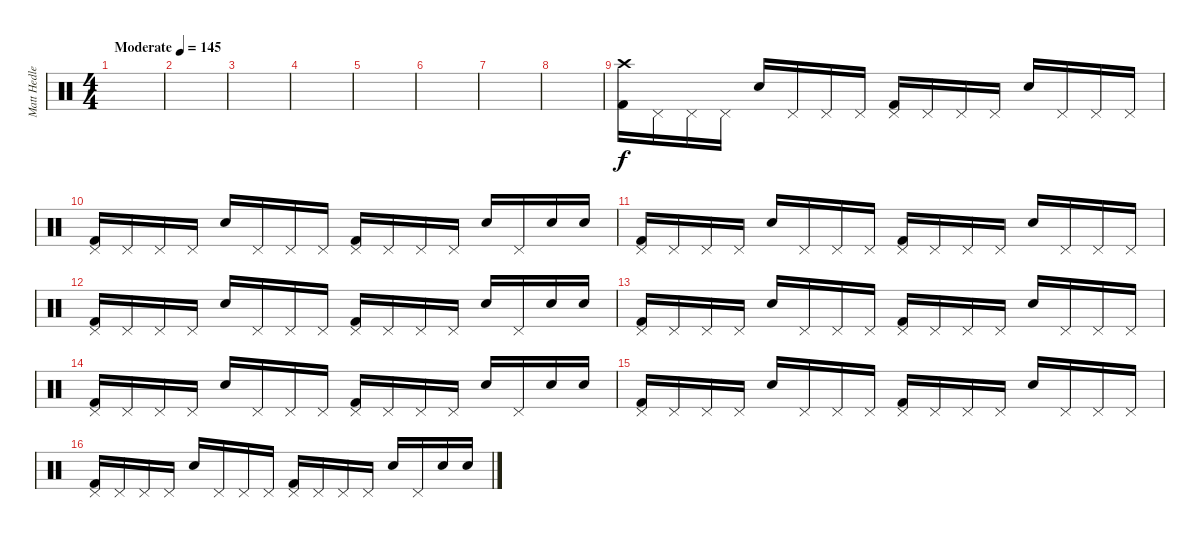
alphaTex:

\track ("Matt Hedlers" "Matt Hedle") {instrument percussion}
\staff {score}
\articulation defaults
\ts (4 4)
\tempo (145 "Moderate")
\clef neutral
\ks c
|
|
|
|
|
|
|
|
("Crash high (hit)" "Kick (hit) 2").16 "Pedal Hi-Hat (hit)".16 "Pedal Hi-Hat (hit)".16 "Pedal Hi-Hat (hit)".16 "Snare (hit) 2".16 "Pedal Hi-Hat (hit)".16 "Pedal Hi-Hat (hit)".16 "Pedal Hi-Hat (hit)".16 ("Pedal Hi-Hat (hit)" "Kick (hit) 2").16 "Pedal Hi-Hat (hit)".16 "Pedal Hi-Hat (hit)".16 "Pedal Hi-Hat (hit)".16 "Snare (hit) 2".16 "Pedal Hi-Hat (hit)".16 "Pedal Hi-Hat (hit)".16 "Pedal Hi-Hat (hit)".16 |
("Pedal Hi-Hat (hit)" "Kick (hit) 2").16 "Pedal Hi-Hat (hit)".16 "Pedal Hi-Hat (hit)".16 "Pedal Hi-Hat (hit)".16 "Snare (hit) 2".16 "Pedal Hi-Hat (hit)".16 "Pedal Hi-Hat (hit)".16 "Pedal Hi-Hat (hit)".16 ("Pedal Hi-Hat (hit)" "Kick (hit) 2").16 "Pedal Hi-Hat (hit)".16 "Pedal Hi-Hat (hit)".16 "Pedal Hi-Hat (hit)".16 "Snare (hit) 2".16 "Pedal Hi-Hat (hit)".16 "Snare (hit) 2".16 "Snare (hit) 2".16 |
("Pedal Hi-Hat (hit)" "Kick (hit) 2").16 "Pedal Hi-Hat (hit)".16 "Pedal Hi-Hat (hit)".16 "Pedal Hi-Hat (hit)".16 "Snare (hit) 2".16 "Pedal Hi-Hat (hit)".16 "Pedal Hi-Hat (hit)".16 "Pedal Hi-Hat (hit)".16 ("Pedal Hi-Hat (hit)" "Kick (hit) 2").16 "Pedal Hi-Hat (hit)".16 "Pedal Hi-Hat (hit)".16 "Pedal Hi-Hat (hit)".16 "Snare (hit) 2".16 "Pedal Hi-Hat (hit)".16 "Pedal Hi-Hat (hit)".16 "Pedal Hi-Hat (hit)".16 |
("Pedal Hi-Hat (hit)" "Kick (hit) 2").16 "Pedal Hi-Hat (hit)".16 "Pedal Hi-Hat (hit)".16 "Pedal Hi-Hat (hit)".16 "Snare (hit) 2".16 "Pedal Hi-Hat (hit)".16 "Pedal Hi-Hat (hit)".16 "Pedal Hi-Hat (hit)".16 ("Pedal Hi-Hat (hit)" "Kick (hit) 2").16 "Pedal Hi-Hat (hit)".16 "Pedal Hi-Hat (hit)".16 "Pedal Hi-Hat (hit)".16 "Snare (hit) 2".16 "Pedal Hi-Hat (hit)".16 "Snare (hit) 2".16 "Snare (hit) 2".16 |
("Pedal Hi-Hat (hit)" "Kick (hit) 2").16 "Pedal Hi-Hat (hit)".16 "Pedal Hi-Hat (hit)".16 "Pedal Hi-Hat (hit)".16 "Snare (hit) 2".16 "Pedal Hi-Hat (hit)".16 "Pedal Hi-Hat (hit)".16 "Pedal Hi-Hat (hit)".16 ("Pedal Hi-Hat (hit)" "Kick (hit) 2").16 "Pedal Hi-Hat (hit)".16 "Pedal Hi-Hat (hit)".16 "Pedal Hi-Hat (hit)".16 "Snare (hit) 2".16 "Pedal Hi-Hat (hit)".16 "Pedal Hi-Hat (hit)".16 "Pedal Hi-Hat (hit)".16 |
("Pedal Hi-Hat (hit)" "Kick (hit) 2").16 "Pedal Hi-Hat (hit)".16 "Pedal Hi-Hat (hit)".16 "Pedal Hi-Hat (hit)".16 "Snare (hit) 2".16 "Pedal Hi-Hat (hit)".16 "Pedal Hi-Hat (hit)".16 "Pedal Hi-Hat (hit)".16 ("Pedal Hi-Hat (hit)" "Kick (hit) 2").16 "Pedal Hi-Hat (hit)".16 "Pedal Hi-Hat (hit)".16 "Pedal Hi-Hat (hit)".16 "Snare (hit) 2".16 "Pedal Hi-Hat (hit)".16 "Snare (hit) 2".16 "Snare (hit) 2".16 |
("Pedal Hi-Hat (hit)" "Kick (hit) 2").16 "Pedal Hi-Hat (hit)".16 "Pedal Hi-Hat (hit)".16 "Pedal Hi-Hat (hit)".16 "Snare (hit) 2".16 "Pedal Hi-Hat (hit)".16 "Pedal Hi-Hat (hit)".16 "Pedal Hi-Hat (hit)".16 ("Pedal Hi-Hat (hit)" "Kick (hit) 2").16 "Pedal Hi-Hat (hit)".16 "Pedal Hi-Hat (hit)".16 "Pedal Hi-Hat (hit)".16 "Snare (hit) 2".16 "Pedal Hi-Hat (hit)".16 "Pedal Hi-Hat (hit)".16 "Pedal Hi-Hat (hit)".16 |
("Pedal Hi-Hat (hit)" "Kick (hit) 2").16 "Pedal Hi-Hat (hit)".16 "Pedal Hi-Hat (hit)".16 "Pedal Hi-Hat (hit)".16 "Snare (hit) 2".16 "Pedal Hi-Hat (hit)".16 "Pedal Hi-Hat (hit)".16 "Pedal Hi-Hat (hit)".16 ("Pedal Hi-Hat (hit)" "Kick (hit) 2").16 "Pedal Hi-Hat (hit)".16 "Pedal Hi-Hat (hit)".16 "Pedal Hi-Hat (hit)".16 "Snare (hit) 2".16 "Pedal Hi-Hat (hit)".16 "Snare (hit) 2".16 "Snare (hit) 2".16
